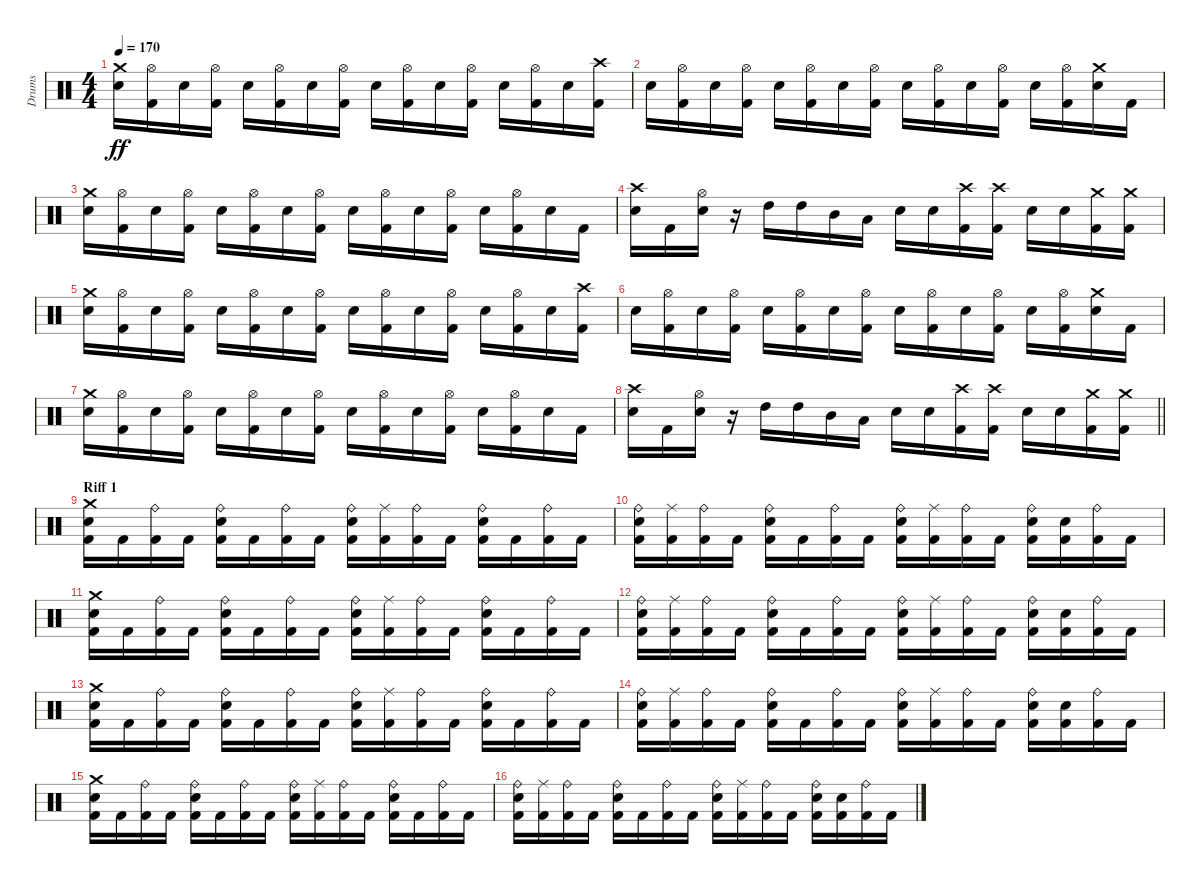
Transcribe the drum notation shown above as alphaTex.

\track ("Drums" "Drums") {instrument percussion}
\staff {score}
\articulation defaults
\ts (4 4)
\tempo 170
\clef neutral
\ks c
("Crash medium (hit)" "Snare (hit) 2").16{dy ff} ("Hi-Hat (open)" "Kick (hit) 2").16 "Snare (hit) 2".16 ("Hi-Hat (open)" "Kick (hit) 2").16 "Snare (hit) 2".16 ("Hi-Hat (open)" "Kick (hit) 2").16 "Snare (hit) 2".16 ("Hi-Hat (open)" "Kick (hit) 2").16 "Snare (hit) 2".16 ("Hi-Hat (open)" "Kick (hit) 2").16 "Snare (hit) 2".16 ("Hi-Hat (open)" "Kick (hit) 2").16 "Snare (hit) 2".16 ("Hi-Hat (open)" "Kick (hit) 2").16 "Snare (hit) 2".16 ("Crash high (hit)" "Kick (hit) 2").16 |
"Snare (hit) 2".16 ("Hi-Hat (open)" "Kick (hit) 2").16 "Snare (hit) 2".16 ("Hi-Hat (open)" "Kick (hit) 2").16 "Snare (hit) 2".16 ("Hi-Hat (open)" "Kick (hit) 2").16 "Snare (hit) 2".16 ("Hi-Hat (open)" "Kick (hit) 2").16 "Snare (hit) 2".16 ("Hi-Hat (open)" "Kick (hit) 2").16 "Snare (hit) 2".16 ("Hi-Hat (open)" "Kick (hit) 2").16 "Snare (hit) 2".16 ("Hi-Hat (open)" "Kick (hit) 2").16 ("Crash medium (hit)" "Snare (hit) 2").16 "Kick (hit) 2".16 |
("Crash medium (hit)" "Snare (hit) 2").16 ("Hi-Hat (open)" "Kick (hit) 2").16 "Snare (hit) 2".16 ("Hi-Hat (open)" "Kick (hit) 2").16 "Snare (hit) 2".16 ("Hi-Hat (open)" "Kick (hit) 2").16 "Snare (hit) 2".16 ("Hi-Hat (open)" "Kick (hit) 2").16 "Snare (hit) 2".16 ("Hi-Hat (open)" "Kick (hit) 2").16 "Snare (hit) 2".16 ("Hi-Hat (open)" "Kick (hit) 2").16 "Snare (hit) 2".16 ("Hi-Hat (open)" "Kick (hit) 2").16 "Snare (hit) 2".16 "Kick (hit) 2".16 |
("Crash high (hit)" "Snare (hit) 2").16 "Kick (hit) 2".16 ("Hi-Hat (open)" "Snare (hit) 2").16 r.16 "High Tom (hit)".16 "High Tom (hit)".16 "Mid Tom (hit)".16 "Low Tom (hit)".16 "Snare (hit) 2".16 "Snare (hit) 2".16 ("Crash high (hit)" "Kick (hit) 2").16 ("Crash high (hit)" "Kick (hit) 2").16 "Snare (hit) 2".16 "Snare (hit) 2".16 ("Crash medium (hit)" "Kick (hit) 2").16 ("Crash medium (hit)" "Kick (hit) 2").16 |
("Crash medium (hit)" "Snare (hit) 2").16 ("Hi-Hat (open)" "Kick (hit) 2").16 "Snare (hit) 2".16 ("Hi-Hat (open)" "Kick (hit) 2").16 "Snare (hit) 2".16 ("Hi-Hat (open)" "Kick (hit) 2").16 "Snare (hit) 2".16 ("Hi-Hat (open)" "Kick (hit) 2").16 "Snare (hit) 2".16 ("Hi-Hat (open)" "Kick (hit) 2").16 "Snare (hit) 2".16 ("Hi-Hat (open)" "Kick (hit) 2").16 "Snare (hit) 2".16 ("Hi-Hat (open)" "Kick (hit) 2").16 "Snare (hit) 2".16 ("Crash high (hit)" "Kick (hit) 2").16 |
"Snare (hit) 2".16 ("Hi-Hat (open)" "Kick (hit) 2").16 "Snare (hit) 2".16 ("Hi-Hat (open)" "Kick (hit) 2").16 "Snare (hit) 2".16 ("Hi-Hat (open)" "Kick (hit) 2").16 "Snare (hit) 2".16 ("Hi-Hat (open)" "Kick (hit) 2").16 "Snare (hit) 2".16 ("Hi-Hat (open)" "Kick (hit) 2").16 "Snare (hit) 2".16 ("Hi-Hat (open)" "Kick (hit) 2").16 "Snare (hit) 2".16 ("Hi-Hat (open)" "Kick (hit) 2").16 ("Crash medium (hit)" "Snare (hit) 2").16 "Kick (hit) 2".16 |
("Crash medium (hit)" "Snare (hit) 2").16 ("Hi-Hat (open)" "Kick (hit) 2").16 "Snare (hit) 2".16 ("Hi-Hat (open)" "Kick (hit) 2").16 "Snare (hit) 2".16 ("Hi-Hat (open)" "Kick (hit) 2").16 "Snare (hit) 2".16 ("Hi-Hat (open)" "Kick (hit) 2").16 "Snare (hit) 2".16 ("Hi-Hat (open)" "Kick (hit) 2").16 "Snare (hit) 2".16 ("Hi-Hat (open)" "Kick (hit) 2").16 "Snare (hit) 2".16 ("Hi-Hat (open)" "Kick (hit) 2").16 "Snare (hit) 2".16 "Kick (hit) 2".16 |
\barLineRight lightlight
("Crash high (hit)" "Snare (hit) 2").16 "Kick (hit) 2".16 ("Hi-Hat (open)" "Snare (hit) 2").16 r.16 "High Tom (hit)".16 "High Tom (hit)".16 "Mid Tom (hit)".16 "Low Tom (hit)".16 "Snare (hit) 2".16 "Snare (hit) 2".16 ("Crash high (hit)" "Kick (hit) 2").16 ("Crash high (hit)" "Kick (hit) 2").16 "Snare (hit) 2".16 "Snare (hit) 2".16 ("Crash medium (hit)" "Kick (hit) 2").16 ("Crash medium (hit)" "Kick (hit) 2").16 |
\section ("" "Riff 1")
("Crash medium (hit)" "Kick (hit) 2" "Snare (hit) 2").16 "Kick (hit) 2".16 ("Kick (hit) 2" "Ride (bell)").16 "Kick (hit) 2".16 ("Kick (hit) 2" "Snare (hit) 2" "Ride (bell)").16 "Kick (hit) 2".16 ("Kick (hit) 2" "Ride (bell)").16 "Kick (hit) 2".16 ("Kick (hit) 2" "Snare (hit) 2" "Ride (bell)").16 ("Kick (hit) 2" "Ride (middle)").16 ("Kick (hit) 2" "Ride (bell)").16 "Kick (hit) 2".16 ("Kick (hit) 2" "Snare (hit) 2" "Ride (bell)").16 "Kick (hit) 2".16 ("Kick (hit) 2" "Ride (bell)").16 "Kick (hit) 2".16 |
("Kick (hit) 2" "Snare (hit) 2" "Ride (bell)").16 ("Kick (hit) 2" "Ride (middle)").16 ("Kick (hit) 2" "Ride (bell)").16 "Kick (hit) 2".16 ("Kick (hit) 2" "Snare (hit) 2" "Ride (bell)").16 "Kick (hit) 2".16 ("Kick (hit) 2" "Ride (bell)").16 "Kick (hit) 2".16 ("Kick (hit) 2" "Snare (hit) 2" "Ride (bell)").16 ("Kick (hit) 2" "Ride (middle)").16 ("Kick (hit) 2" "Ride (bell)").16 "Kick (hit) 2".16 ("Kick (hit) 2" "Snare (hit) 2" "Ride (bell)").16 ("Kick (hit) 2" "Snare (hit) 2").16 ("Kick (hit) 2" "Ride (bell)").16 "Kick (hit) 2".16 |
("Crash medium (hit)" "Kick (hit) 2" "Snare (hit) 2").16 "Kick (hit) 2".16 ("Kick (hit) 2" "Ride (bell)").16 "Kick (hit) 2".16 ("Kick (hit) 2" "Snare (hit) 2" "Ride (bell)").16 "Kick (hit) 2".16 ("Kick (hit) 2" "Ride (bell)").16 "Kick (hit) 2".16 ("Kick (hit) 2" "Snare (hit) 2" "Ride (bell)").16 ("Kick (hit) 2" "Ride (middle)").16 ("Kick (hit) 2" "Ride (bell)").16 "Kick (hit) 2".16 ("Kick (hit) 2" "Snare (hit) 2" "Ride (bell)").16 "Kick (hit) 2".16 ("Kick (hit) 2" "Ride (bell)").16 "Kick (hit) 2".16 |
("Kick (hit) 2" "Snare (hit) 2" "Ride (bell)").16 ("Kick (hit) 2" "Ride (middle)").16 ("Kick (hit) 2" "Ride (bell)").16 "Kick (hit) 2".16 ("Kick (hit) 2" "Snare (hit) 2" "Ride (bell)").16 "Kick (hit) 2".16 ("Kick (hit) 2" "Ride (bell)").16 "Kick (hit) 2".16 ("Kick (hit) 2" "Snare (hit) 2" "Ride (bell)").16 ("Kick (hit) 2" "Ride (middle)").16 ("Kick (hit) 2" "Ride (bell)").16 "Kick (hit) 2".16 ("Kick (hit) 2" "Snare (hit) 2" "Ride (bell)").16 ("Kick (hit) 2" "Snare (hit) 2").16 ("Kick (hit) 2" "Ride (bell)").16 "Kick (hit) 2".16 |
("Crash medium (hit)" "Kick (hit) 2" "Snare (hit) 2").16 "Kick (hit) 2".16 ("Kick (hit) 2" "Ride (bell)").16 "Kick (hit) 2".16 ("Kick (hit) 2" "Snare (hit) 2" "Ride (bell)").16 "Kick (hit) 2".16 ("Kick (hit) 2" "Ride (bell)").16 "Kick (hit) 2".16 ("Kick (hit) 2" "Snare (hit) 2" "Ride (bell)").16 ("Kick (hit) 2" "Ride (middle)").16 ("Kick (hit) 2" "Ride (bell)").16 "Kick (hit) 2".16 ("Kick (hit) 2" "Snare (hit) 2" "Ride (bell)").16 "Kick (hit) 2".16 ("Kick (hit) 2" "Ride (bell)").16 "Kick (hit) 2".16 |
("Kick (hit) 2" "Snare (hit) 2" "Ride (bell)").16 ("Kick (hit) 2" "Ride (middle)").16 ("Kick (hit) 2" "Ride (bell)").16 "Kick (hit) 2".16 ("Kick (hit) 2" "Snare (hit) 2" "Ride (bell)").16 "Kick (hit) 2".16 ("Kick (hit) 2" "Ride (bell)").16 "Kick (hit) 2".16 ("Kick (hit) 2" "Snare (hit) 2" "Ride (bell)").16 ("Kick (hit) 2" "Ride (middle)").16 ("Kick (hit) 2" "Ride (bell)").16 "Kick (hit) 2".16 ("Kick (hit) 2" "Snare (hit) 2" "Ride (bell)").16 ("Kick (hit) 2" "Snare (hit) 2").16 ("Kick (hit) 2" "Ride (bell)").16 "Kick (hit) 2".16 |
("Crash medium (hit)" "Kick (hit) 2" "Snare (hit) 2").16 "Kick (hit) 2".16 ("Kick (hit) 2" "Ride (bell)").16 "Kick (hit) 2".16 ("Kick (hit) 2" "Snare (hit) 2" "Ride (bell)").16 "Kick (hit) 2".16 ("Kick (hit) 2" "Ride (bell)").16 "Kick (hit) 2".16 ("Kick (hit) 2" "Snare (hit) 2" "Ride (bell)").16 ("Kick (hit) 2" "Ride (middle)").16 ("Kick (hit) 2" "Ride (bell)").16 "Kick (hit) 2".16 ("Kick (hit) 2" "Snare (hit) 2" "Ride (bell)").16 "Kick (hit) 2".16 ("Kick (hit) 2" "Ride (bell)").16 "Kick (hit) 2".16 |
("Kick (hit) 2" "Snare (hit) 2" "Ride (bell)").16 ("Kick (hit) 2" "Ride (middle)").16 ("Kick (hit) 2" "Ride (bell)").16 "Kick (hit) 2".16 ("Kick (hit) 2" "Snare (hit) 2" "Ride (bell)").16 "Kick (hit) 2".16 ("Kick (hit) 2" "Ride (bell)").16 "Kick (hit) 2".16 ("Kick (hit) 2" "Snare (hit) 2" "Ride (bell)").16 ("Kick (hit) 2" "Ride (middle)").16 ("Kick (hit) 2" "Ride (bell)").16 "Kick (hit) 2".16 ("Kick (hit) 2" "Snare (hit) 2" "Ride (bell)").16 ("Kick (hit) 2" "Snare (hit) 2").16 ("Kick (hit) 2" "Ride (bell)").16 "Kick (hit) 2".16
